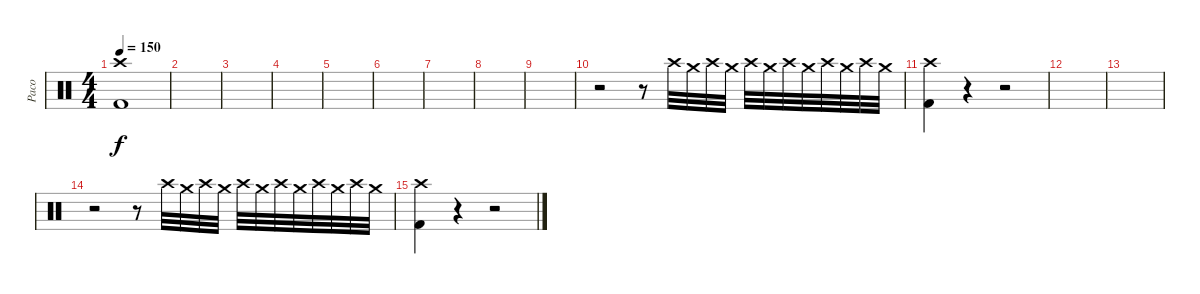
\track ("Paco" "Paco") {instrument percussion}
\staff {score}
\articulation defaults
\ts (4 4)
\tempo 150
\clef neutral
\ks c
("Crash high (hit)" "Kick (hit) 2").1{dy f} |
|
|
|
|
|
|
|
|
r.2 r.8 "Crash high (hit)".32{volume 4} "Crash medium (hit)".32{volume 13} "Crash high (hit)".32 "Crash medium (hit)".32 "Crash high (hit)".32 "Crash medium (hit)".32 "Crash high (hit)".32 "Crash medium (hit)".32 "Crash high (hit)".32 "Crash medium (hit)".32 "Crash high (hit)".32 "Crash medium (hit)".32 |
("Crash high (hit)" "Kick (hit) 2").4 r.4 r.2 |
|
|
r.2 r.8 "Crash high (hit)".32{volume 4} "Crash medium (hit)".32{volume 13} "Crash high (hit)".32 "Crash medium (hit)".32 "Crash high (hit)".32 "Crash medium (hit)".32 "Crash high (hit)".32 "Crash medium (hit)".32 "Crash high (hit)".32 "Crash medium (hit)".32 "Crash high (hit)".32 "Crash medium (hit)".32 |
("Crash high (hit)" "Kick (hit) 2").4 r.4 r.2
